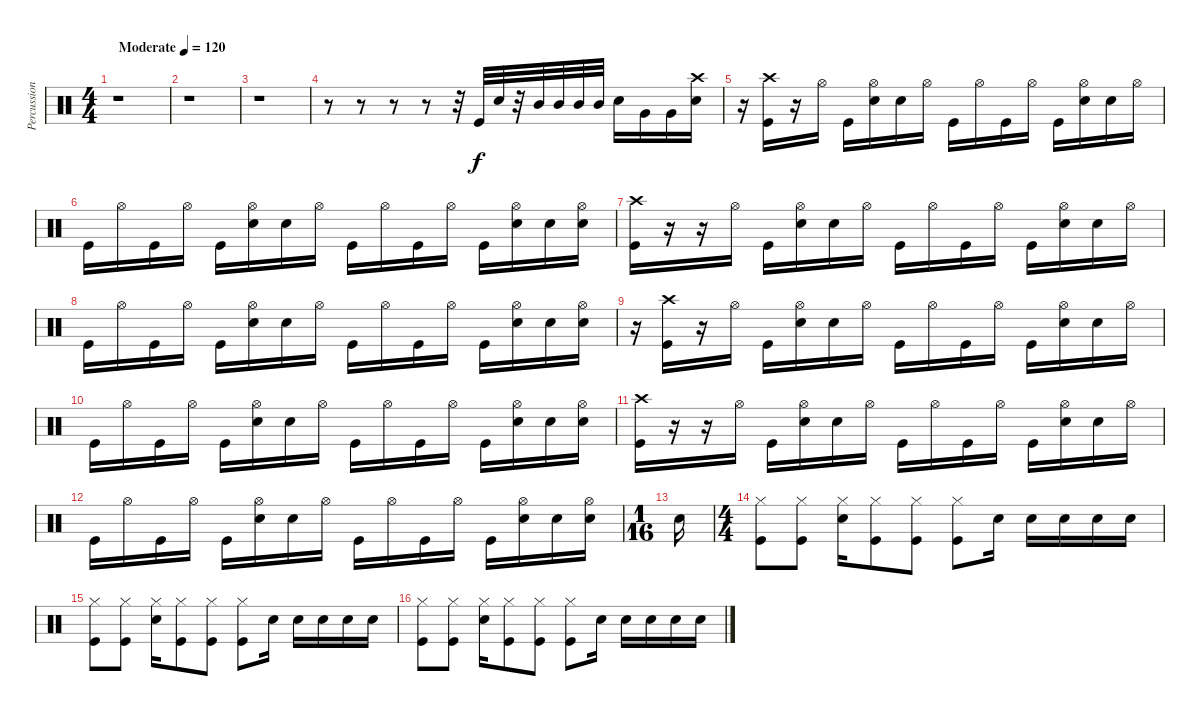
\track ("Percussion" "Percussion") {instrument percussion}
\staff {score}
\articulation defaults
\ts (4 4)
\tempo (120 "Moderate")
\clef neutral
\ks c
r.1{dy f} |
r.1 |
r.1 |
r.8 r.8 r.8 r.8 r.32 "Kick (hit)".32 "Snare (hit) 2".32 r.32 "Mid Tom (hit)".32 "Mid Tom (hit)".32 "Mid Tom (hit)".32 "Mid Tom (hit)".32 "Snare (hit) 2".16 "Very Low Tom (hit)".16 "Very Low Tom (hit)".16 ("Crash high (hit)" "Snare (hit) 2").16 |
r.16 ("Crash high (hit)" "Kick (hit)").16 r.16 "Hi-Hat (open)".16 "Kick (hit)".16 ("Hi-Hat (open)" "Snare (hit) 2").16 "Snare (hit) 2".16 "Hi-Hat (open)".16 "Kick (hit)".16 "Hi-Hat (open)".16 "Kick (hit)".16 "Hi-Hat (open)".16 "Kick (hit)".16 ("Hi-Hat (open)" "Snare (hit) 2").16 "Snare (hit) 2".16 "Hi-Hat (open)".16 |
"Kick (hit)".16 "Hi-Hat (open)".16 "Kick (hit)".16 "Hi-Hat (open)".16 "Kick (hit)".16 ("Hi-Hat (open)" "Snare (hit) 2").16 "Snare (hit) 2".16 "Hi-Hat (open)".16 "Kick (hit)".16 "Hi-Hat (open)".16 "Kick (hit)".16 "Hi-Hat (open)".16 "Kick (hit)".16 ("Hi-Hat (open)" "Snare (hit) 2").16 "Snare (hit) 2".16 ("Hi-Hat (open)" "Snare (hit) 2").16 |
("Crash high (hit)" "Kick (hit)").16 r.16 r.16 "Hi-Hat (open)".16 "Kick (hit)".16 ("Hi-Hat (open)" "Snare (hit) 2").16 "Snare (hit) 2".16 "Hi-Hat (open)".16 "Kick (hit)".16 "Hi-Hat (open)".16 "Kick (hit)".16 "Hi-Hat (open)".16 "Kick (hit)".16 ("Hi-Hat (open)" "Snare (hit) 2").16 "Snare (hit) 2".16 "Hi-Hat (open)".16 |
"Kick (hit)".16 "Hi-Hat (open)".16 "Kick (hit)".16 "Hi-Hat (open)".16 "Kick (hit)".16 ("Hi-Hat (open)" "Snare (hit) 2").16 "Snare (hit) 2".16 "Hi-Hat (open)".16 "Kick (hit)".16 "Hi-Hat (open)".16 "Kick (hit)".16 "Hi-Hat (open)".16 "Kick (hit)".16 ("Hi-Hat (open)" "Snare (hit) 2").16 "Snare (hit) 2".16 ("Hi-Hat (open)" "Snare (hit) 2").16 |
r.16 ("Crash high (hit)" "Kick (hit)").16 r.16 "Hi-Hat (open)".16 "Kick (hit)".16 ("Hi-Hat (open)" "Snare (hit) 2").16 "Snare (hit) 2".16 "Hi-Hat (open)".16 "Kick (hit)".16 "Hi-Hat (open)".16 "Kick (hit)".16 "Hi-Hat (open)".16 "Kick (hit)".16 ("Hi-Hat (open)" "Snare (hit) 2").16 "Snare (hit) 2".16 "Hi-Hat (open)".16 |
"Kick (hit)".16 "Hi-Hat (open)".16 "Kick (hit)".16 "Hi-Hat (open)".16 "Kick (hit)".16 ("Hi-Hat (open)" "Snare (hit) 2").16 "Snare (hit) 2".16 "Hi-Hat (open)".16 "Kick (hit)".16 "Hi-Hat (open)".16 "Kick (hit)".16 "Hi-Hat (open)".16 "Kick (hit)".16 ("Hi-Hat (open)" "Snare (hit) 2").16 "Snare (hit) 2".16 ("Hi-Hat (open)" "Snare (hit) 2").16 |
("Crash high (hit)" "Kick (hit)").16 r.16 r.16 "Hi-Hat (open)".16 "Kick (hit)".16 ("Hi-Hat (open)" "Snare (hit) 2").16 "Snare (hit) 2".16 "Hi-Hat (open)".16 "Kick (hit)".16 "Hi-Hat (open)".16 "Kick (hit)".16 "Hi-Hat (open)".16 "Kick (hit)".16 ("Hi-Hat (open)" "Snare (hit) 2").16 "Snare (hit) 2".16 "Hi-Hat (open)".16 |
"Kick (hit)".16 "Hi-Hat (open)".16 "Kick (hit)".16 "Hi-Hat (open)".16 "Kick (hit)".16 ("Hi-Hat (open)" "Snare (hit) 2").16 "Snare (hit) 2".16 "Hi-Hat (open)".16 "Kick (hit)".16 "Hi-Hat (open)".16 "Kick (hit)".16 "Hi-Hat (open)".16 "Kick (hit)".16 ("Hi-Hat (open)" "Snare (hit) 2").16 "Snare (hit) 2".16 ("Hi-Hat (open)" "Snare (hit) 2").16 |
\ts (1 16)
"Snare (hit) 2".16 |
\ts (4 4)
("Hi-Hat (closed)" "Kick (hit)").8 ("Hi-Hat (closed)" "Kick (hit)").8 ("Hi-Hat (closed)" "Snare (hit) 2").16 ("Hi-Hat (closed)" "Kick (hit)").8 ("Hi-Hat (closed)" "Kick (hit)").8 ("Hi-Hat (closed)" "Kick (hit)").8 "Snare (hit) 2".16 "Snare (hit) 2".16 "Snare (hit) 2".16 "Snare (hit) 2".16 "Snare (hit) 2".16 |
("Hi-Hat (closed)" "Kick (hit)").8 ("Hi-Hat (closed)" "Kick (hit)").8 ("Hi-Hat (closed)" "Snare (hit) 2").16 ("Hi-Hat (closed)" "Kick (hit)").8 ("Hi-Hat (closed)" "Kick (hit)").8 ("Hi-Hat (closed)" "Kick (hit)").8 "Snare (hit) 2".16 "Snare (hit) 2".16 "Snare (hit) 2".16 "Snare (hit) 2".16 "Snare (hit) 2".16 |
("Hi-Hat (closed)" "Kick (hit)").8 ("Hi-Hat (closed)" "Kick (hit)").8 ("Hi-Hat (closed)" "Snare (hit) 2").16 ("Hi-Hat (closed)" "Kick (hit)").8 ("Hi-Hat (closed)" "Kick (hit)").8 ("Hi-Hat (closed)" "Kick (hit)").8 "Snare (hit) 2".16 "Snare (hit) 2".16 "Snare (hit) 2".16 "Snare (hit) 2".16 "Snare (hit) 2".16
